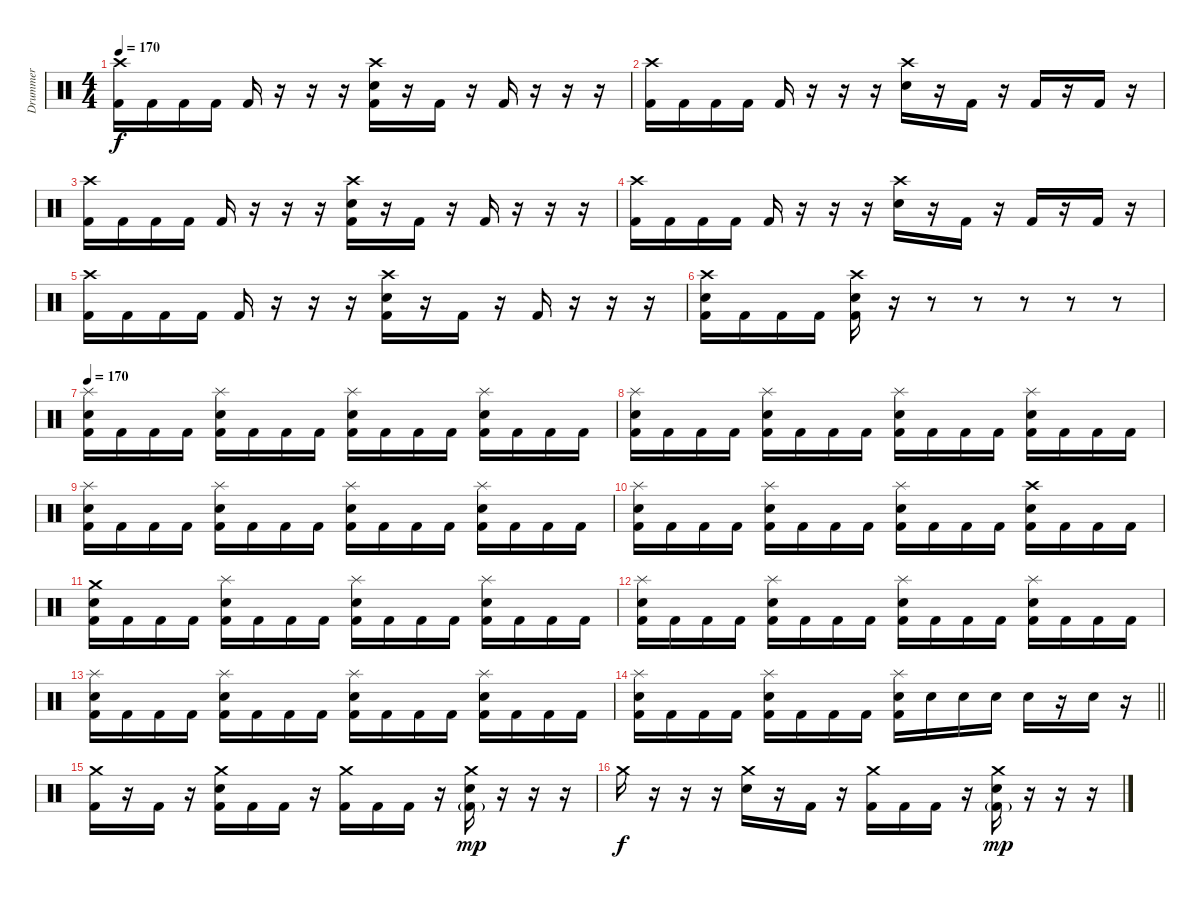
\track ("Drummer" "Drummer") {instrument percussion}
\staff {score}
\articulation defaults
\ts (4 4)
\tempo 170
\clef neutral
\ks c
("Crash high (hit)" "Kick (hit) 2").16{dy f} "Kick (hit) 2".16 "Kick (hit) 2".16 "Kick (hit) 2".16 "Kick (hit) 2".16 r.16 r.16 r.16 ("Crash high (hit)" "Snare (hit) 2" "Kick (hit) 2").16 r.16 "Kick (hit) 2".16 r.16 "Kick (hit) 2".16 r.16 r.16 r.16 |
("Crash high (hit)" "Kick (hit) 2").16 "Kick (hit) 2".16 "Kick (hit) 2".16 "Kick (hit) 2".16 "Kick (hit) 2".16 r.16 r.16 r.16 ("Crash high (hit)" "Snare (hit) 2").16 r.16 "Kick (hit) 2".16 r.16 "Kick (hit) 2".16 r.16 "Kick (hit) 2".16 r.16 |
("Crash high (hit)" "Kick (hit) 2").16 "Kick (hit) 2".16 "Kick (hit) 2".16 "Kick (hit) 2".16 "Kick (hit) 2".16 r.16 r.16 r.16 ("Crash high (hit)" "Snare (hit) 2" "Kick (hit) 2").16 r.16 "Kick (hit) 2".16 r.16 "Kick (hit) 2".16 r.16 r.16 r.16 |
("Crash high (hit)" "Kick (hit) 2").16 "Kick (hit) 2".16 "Kick (hit) 2".16 "Kick (hit) 2".16 "Kick (hit) 2".16 r.16 r.16 r.16 ("Crash high (hit)" "Snare (hit) 2").16 r.16 "Kick (hit) 2".16 r.16 "Kick (hit) 2".16 r.16 "Kick (hit) 2".16 r.16 |
("Crash high (hit)" "Kick (hit) 2").16 "Kick (hit) 2".16 "Kick (hit) 2".16 "Kick (hit) 2".16 "Kick (hit) 2".16 r.16 r.16 r.16 ("Crash high (hit)" "Snare (hit) 2" "Kick (hit) 2").16 r.16 "Kick (hit) 2".16 r.16 "Kick (hit) 2".16 r.16 r.16 r.16 |
("Crash high (hit)" "Snare (hit) 2" "Kick (hit) 2").16 "Kick (hit) 2".16 "Kick (hit) 2".16 "Kick (hit) 2".16 ("Crash high (hit)" "Snare (hit) 2" "Kick (hit) 2").16 r.16 r.8 r.8 r.8 r.8 r.8 |
\tempo 170
("Splash (hit)" "Snare (hit) 2" "Kick (hit) 2").16 "Kick (hit) 2".16 "Kick (hit) 2".16 "Kick (hit) 2".16 ("Splash (hit)" "Snare (hit) 2" "Kick (hit) 2").16 "Kick (hit) 2".16 "Kick (hit) 2".16 "Kick (hit) 2".16 ("Splash (hit)" "Snare (hit) 2" "Kick (hit) 2").16 "Kick (hit) 2".16 "Kick (hit) 2".16 "Kick (hit) 2".16 ("Splash (hit)" "Snare (hit) 2" "Kick (hit) 2").16 "Kick (hit) 2".16 "Kick (hit) 2".16 "Kick (hit) 2".16 |
("Splash (hit)" "Snare (hit) 2" "Kick (hit) 2").16 "Kick (hit) 2".16 "Kick (hit) 2".16 "Kick (hit) 2".16 ("Splash (hit)" "Snare (hit) 2" "Kick (hit) 2").16 "Kick (hit) 2".16 "Kick (hit) 2".16 "Kick (hit) 2".16 ("Splash (hit)" "Snare (hit) 2" "Kick (hit) 2").16 "Kick (hit) 2".16 "Kick (hit) 2".16 "Kick (hit) 2".16 ("Splash (hit)" "Snare (hit) 2" "Kick (hit) 2").16 "Kick (hit) 2".16 "Kick (hit) 2".16 "Kick (hit) 2".16 |
("Splash (hit)" "Snare (hit) 2" "Kick (hit) 2").16 "Kick (hit) 2".16 "Kick (hit) 2".16 "Kick (hit) 2".16 ("Splash (hit)" "Snare (hit) 2" "Kick (hit) 2").16 "Kick (hit) 2".16 "Kick (hit) 2".16 "Kick (hit) 2".16 ("Splash (hit)" "Snare (hit) 2" "Kick (hit) 2").16 "Kick (hit) 2".16 "Kick (hit) 2".16 "Kick (hit) 2".16 ("Splash (hit)" "Snare (hit) 2" "Kick (hit) 2").16 "Kick (hit) 2".16 "Kick (hit) 2".16 "Kick (hit) 2".16 |
("Splash (hit)" "Snare (hit) 2" "Kick (hit) 2").16 "Kick (hit) 2".16 "Kick (hit) 2".16 "Kick (hit) 2".16 ("Splash (hit)" "Snare (hit) 2" "Kick (hit) 2").16 "Kick (hit) 2".16 "Kick (hit) 2".16 "Kick (hit) 2".16 ("Splash (hit)" "Snare (hit) 2" "Kick (hit) 2").16 "Kick (hit) 2".16 "Kick (hit) 2".16 "Kick (hit) 2".16 ("Crash high (hit)" "Snare (hit) 2" "Kick (hit) 2").16 "Kick (hit) 2".16 "Kick (hit) 2".16 "Kick (hit) 2".16 |
("Crash medium (hit)" "Snare (hit) 2" "Kick (hit) 2").16 "Kick (hit) 2".16 "Kick (hit) 2".16 "Kick (hit) 2".16 ("Splash (hit)" "Snare (hit) 2" "Kick (hit) 2").16 "Kick (hit) 2".16 "Kick (hit) 2".16 "Kick (hit) 2".16 ("Splash (hit)" "Snare (hit) 2" "Kick (hit) 2").16 "Kick (hit) 2".16 "Kick (hit) 2".16 "Kick (hit) 2".16 ("Splash (hit)" "Snare (hit) 2" "Kick (hit) 2").16 "Kick (hit) 2".16 "Kick (hit) 2".16 "Kick (hit) 2".16 |
("Splash (hit)" "Snare (hit) 2" "Kick (hit) 2").16 "Kick (hit) 2".16 "Kick (hit) 2".16 "Kick (hit) 2".16 ("Splash (hit)" "Snare (hit) 2" "Kick (hit) 2").16 "Kick (hit) 2".16 "Kick (hit) 2".16 "Kick (hit) 2".16 ("Splash (hit)" "Snare (hit) 2" "Kick (hit) 2").16 "Kick (hit) 2".16 "Kick (hit) 2".16 "Kick (hit) 2".16 ("Splash (hit)" "Snare (hit) 2" "Kick (hit) 2").16 "Kick (hit) 2".16 "Kick (hit) 2".16 "Kick (hit) 2".16 |
("Splash (hit)" "Snare (hit) 2" "Kick (hit) 2").16 "Kick (hit) 2".16 "Kick (hit) 2".16 "Kick (hit) 2".16 ("Splash (hit)" "Snare (hit) 2" "Kick (hit) 2").16 "Kick (hit) 2".16 "Kick (hit) 2".16 "Kick (hit) 2".16 ("Splash (hit)" "Snare (hit) 2" "Kick (hit) 2").16 "Kick (hit) 2".16 "Kick (hit) 2".16 "Kick (hit) 2".16 ("Splash (hit)" "Snare (hit) 2" "Kick (hit) 2").16 "Kick (hit) 2".16 "Kick (hit) 2".16 "Kick (hit) 2".16 |
\barLineRight lightlight
("Splash (hit)" "Snare (hit) 2" "Kick (hit) 2").16 "Kick (hit) 2".16 "Kick (hit) 2".16 "Kick (hit) 2".16 ("Splash (hit)" "Snare (hit) 2" "Kick (hit) 2").16 "Kick (hit) 2".16 "Kick (hit) 2".16 "Kick (hit) 2".16 ("Splash (hit)" "Snare (hit) 2" "Kick (hit) 2").16 "Snare (hit) 2".16 "Snare (hit) 2".16 "Snare (hit) 2".16 "Snare (hit) 2".16 r.16 "Snare (hit) 2".16 r.16 |
("Crash medium (hit)" "Kick (hit) 2").16 r.16 "Kick (hit) 2".16 r.16 ("Crash medium (hit)" "Snare (hit) 2" "Kick (hit) 2").16 "Kick (hit) 2".16 "Kick (hit) 2".16 r.16 ("Crash medium (hit)" "Kick (hit) 2").16 "Kick (hit) 2".16 "Kick (hit) 2".16 r.16 ("Crash medium (hit)" "Snare (hit) 2" "Kick (hit) 2"{g}).16{dy mp} r.16 r.16 r.16 |
"Crash medium (hit)".16{dy f} r.16 r.16 r.16 ("Crash medium (hit)" "Snare (hit) 2").16 r.16 "Kick (hit) 2".16 r.16 ("Crash medium (hit)" "Kick (hit) 2").16 "Kick (hit) 2".16 "Kick (hit) 2".16 r.16 ("Crash medium (hit)" "Snare (hit) 2" "Kick (hit) 2"{g}).16{dy mp} r.16 r.16 r.16
